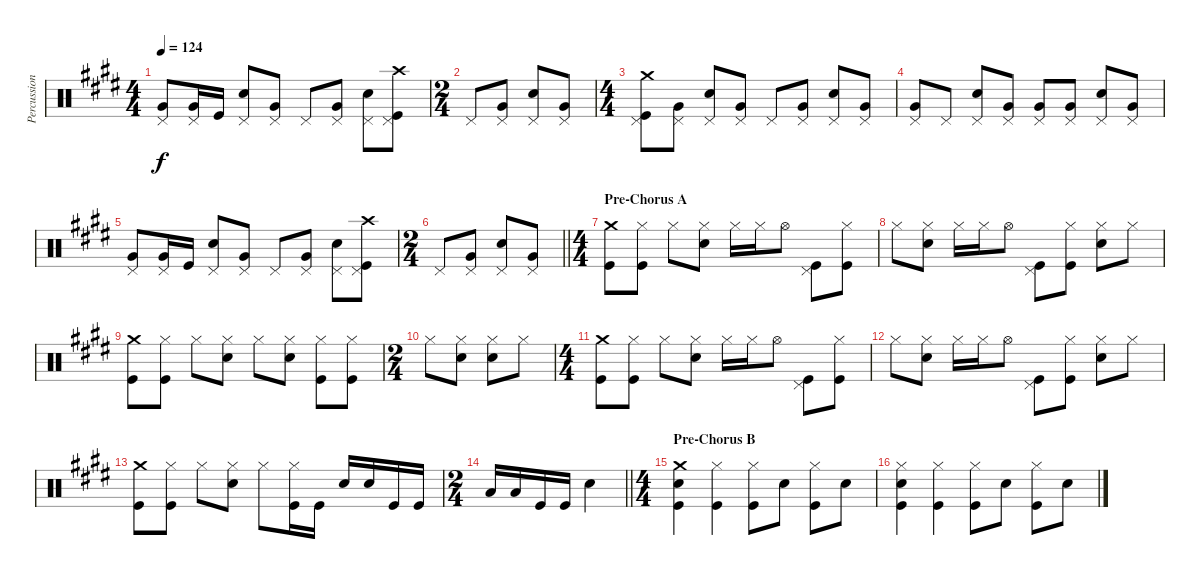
\track ("Percussion" "Percussion") {instrument percussion}
\staff {score}
\articulation defaults
\ts (4 4)
\tempo 124
\clef neutral
\ks e
("Pedal Hi-Hat (hit)" "Very Low Tom (hit)").8{dy f} ("Pedal Hi-Hat (hit)" "Very Low Tom (hit)").16 "Kick (hit)".16 ("Pedal Hi-Hat (hit)" "Electric Snare (hit)").8 ("Pedal Hi-Hat (hit)" "Very Low Tom (hit)").8 "Pedal Hi-Hat (hit)".8 ("Pedal Hi-Hat (hit)" "Very Low Tom (hit)").8 ("Pedal Hi-Hat (hit)" "Electric Snare (hit)").8 ("Crash high (hit)" "Pedal Hi-Hat (hit)" "Kick (hit)").8 |
\ts (2 4)
"Pedal Hi-Hat (hit)".8 ("Pedal Hi-Hat (hit)" "Very Low Tom (hit)").8 ("Pedal Hi-Hat (hit)" "Electric Snare (hit)").8 ("Pedal Hi-Hat (hit)" "Very Low Tom (hit)").8 |
\ts (4 4)
("Crash medium (hit)" "Pedal Hi-Hat (hit)" "Kick (hit)").8 ("Pedal Hi-Hat (hit)" "Very Low Tom (hit)").8 ("Pedal Hi-Hat (hit)" "Electric Snare (hit)").8 ("Pedal Hi-Hat (hit)" "Very Low Tom (hit)").8 "Pedal Hi-Hat (hit)".8 ("Pedal Hi-Hat (hit)" "Very Low Tom (hit)").8 ("Pedal Hi-Hat (hit)" "Electric Snare (hit)").8 ("Pedal Hi-Hat (hit)" "Very Low Tom (hit)").8 |
("Pedal Hi-Hat (hit)" "Very Low Tom (hit)").8 "Pedal Hi-Hat (hit)".8 ("Pedal Hi-Hat (hit)" "Electric Snare (hit)").8 ("Pedal Hi-Hat (hit)" "Very Low Tom (hit)").8 ("Pedal Hi-Hat (hit)" "Very Low Tom (hit)").8 ("Pedal Hi-Hat (hit)" "Very Low Tom (hit)").8 ("Pedal Hi-Hat (hit)" "Electric Snare (hit)").8 ("Pedal Hi-Hat (hit)" "Very Low Tom (hit)").8 |
("Pedal Hi-Hat (hit)" "Very Low Tom (hit)").8 ("Pedal Hi-Hat (hit)" "Very Low Tom (hit)").16 "Kick (hit)".16 ("Pedal Hi-Hat (hit)" "Electric Snare (hit)").8 ("Pedal Hi-Hat (hit)" "Very Low Tom (hit)").8 "Pedal Hi-Hat (hit)".8 ("Pedal Hi-Hat (hit)" "Very Low Tom (hit)").8 ("Pedal Hi-Hat (hit)" "Electric Snare (hit)").8 ("Crash high (hit)" "Pedal Hi-Hat (hit)" "Kick (hit)").8 |
\ts (2 4)
\barLineRight lightlight "Pedal Hi-Hat (hit)".8
("Pedal Hi-Hat (hit)" "Very Low Tom (hit)").8 ("Pedal Hi-Hat (hit)" "Electric Snare (hit)").8 ("Pedal Hi-Hat (hit)" "Very Low Tom (hit)").8 |
\ts (4 4)
\section ("" "Pre-Chorus A")
("Crash medium (hit)" "Kick (hit)").8 ("Hi-Hat (closed)" "Kick (hit)").8 "Hi-Hat (closed)".8 ("Hi-Hat (closed)" "Electric Snare (hit)").8 "Hi-Hat (closed)".16 "Hi-Hat (closed)".16 "Hi-Hat (open)".8 ("Pedal Hi-Hat (hit)" "Kick (hit)").8 ("Hi-Hat (closed)" "Kick (hit)").8 |
"Hi-Hat (closed)".8 ("Hi-Hat (closed)" "Electric Snare (hit)").8 "Hi-Hat (closed)".16 "Hi-Hat (closed)".16 "Hi-Hat (open)".8 ("Pedal Hi-Hat (hit)" "Kick (hit)").8 ("Hi-Hat (closed)" "Kick (hit)").8 ("Hi-Hat (closed)" "Electric Snare (hit)").8 "Hi-Hat (closed)".8 |
("Crash medium (hit)" "Kick (hit)").8 ("Hi-Hat (closed)" "Kick (hit)").8 "Hi-Hat (closed)".8 ("Hi-Hat (closed)" "Electric Snare (hit)").8 "Hi-Hat (closed)".8 ("Hi-Hat (closed)" "Electric Snare (hit)").8 ("Hi-Hat (closed)" "Kick (hit)").8 ("Hi-Hat (closed)" "Kick (hit)").8 |
\ts (2 4)
"Hi-Hat (closed)".8 ("Hi-Hat (closed)" "Electric Snare (hit)").8 ("Hi-Hat (closed)" "Electric Snare (hit)").8 "Hi-Hat (closed)".8 |
\ts (4 4)
("Crash medium (hit)" "Kick (hit)").8 ("Hi-Hat (closed)" "Kick (hit)").8 "Hi-Hat (closed)".8 ("Hi-Hat (closed)" "Electric Snare (hit)").8 "Hi-Hat (closed)".16 "Hi-Hat (closed)".16 "Hi-Hat (open)".8 ("Pedal Hi-Hat (hit)" "Kick (hit)").8 ("Hi-Hat (closed)" "Kick (hit)").8 |
"Hi-Hat (closed)".8 ("Hi-Hat (closed)" "Electric Snare (hit)").8 "Hi-Hat (closed)".16 "Hi-Hat (closed)".16 "Hi-Hat (open)".8 ("Pedal Hi-Hat (hit)" "Kick (hit)").8 ("Hi-Hat (closed)" "Kick (hit)").8 ("Hi-Hat (closed)" "Electric Snare (hit)").8 "Hi-Hat (closed)".8 |
("Crash medium (hit)" "Kick (hit)").8 ("Hi-Hat (closed)" "Kick (hit)").8 "Hi-Hat (closed)".8 ("Hi-Hat (closed)" "Electric Snare (hit)").8 "Hi-Hat (closed)".8 ("Hi-Hat (closed)" "Kick (hit)").16 "Kick (hit)".16 "Electric Snare (hit)".16 "Electric Snare (hit)".16 "Kick (hit)".16 "Kick (hit)".16 |
\ts (2 4)
\barLineRight lightlight "Low Tom (hit)".16 "Low Tom (hit)".16 "Kick (hit)".16 "Kick (hit)".16 "Electric Snare (hit)".4
|
\ts (4 4)
\section ("" "Pre-Chorus B")
("Crash medium (hit)" "Electric Snare (hit)" "Kick (hit)").4 ("Hi-Hat (closed)" "Kick (hit)").4 ("Hi-Hat (closed)" "Kick (hit)").8 "Electric Snare (hit)".8 ("Hi-Hat (closed)" "Kick (hit)").8 "Electric Snare (hit)".8 |
("Hi-Hat (closed)" "Electric Snare (hit)" "Kick (hit)").4 ("Hi-Hat (closed)" "Kick (hit)").4 ("Hi-Hat (closed)" "Kick (hit)").8 "Electric Snare (hit)".8 ("Hi-Hat (closed)" "Kick (hit)").8 "Electric Snare (hit)".8
